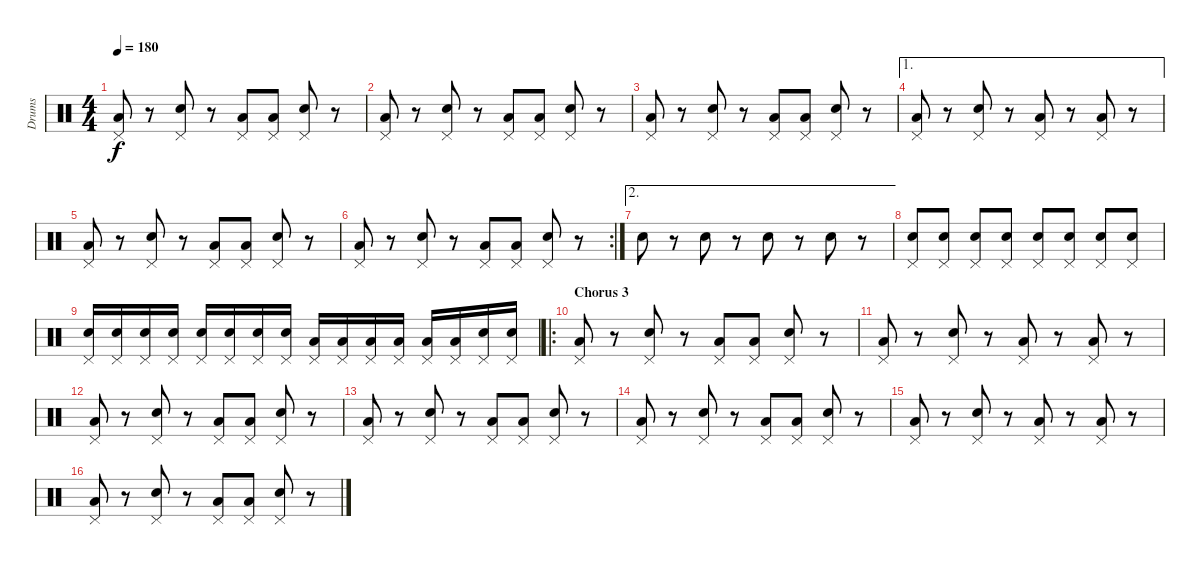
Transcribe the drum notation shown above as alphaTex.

\track ("Drums" "Drums") {instrument percussion}
\staff {score}
\articulation defaults
\ts (4 4)
\tempo 180
\clef neutral
\ks c
("Low Tom (hit)" "Pedal Hi-Hat (hit)").8{dy f} r.8 ("Electric Snare (hit)" "Pedal Hi-Hat (hit)").8 r.8 ("Low Tom (hit)" "Pedal Hi-Hat (hit)").8 ("Low Tom (hit)" "Pedal Hi-Hat (hit)").8 ("Electric Snare (hit)" "Pedal Hi-Hat (hit)").8 r.8 |
("Low Tom (hit)" "Pedal Hi-Hat (hit)").8 r.8 ("Electric Snare (hit)" "Pedal Hi-Hat (hit)").8 r.8 ("Low Tom (hit)" "Pedal Hi-Hat (hit)").8 ("Low Tom (hit)" "Pedal Hi-Hat (hit)").8 ("Electric Snare (hit)" "Pedal Hi-Hat (hit)").8 r.8 |
("Low Tom (hit)" "Pedal Hi-Hat (hit)").8 r.8 ("Electric Snare (hit)" "Pedal Hi-Hat (hit)").8 r.8 ("Low Tom (hit)" "Pedal Hi-Hat (hit)").8 ("Low Tom (hit)" "Pedal Hi-Hat (hit)").8 ("Electric Snare (hit)" "Pedal Hi-Hat (hit)").8 r.8 |
\ae 1
("Low Tom (hit)" "Pedal Hi-Hat (hit)").8 r.8 ("Electric Snare (hit)" "Pedal Hi-Hat (hit)").8 r.8 ("Low Tom (hit)" "Pedal Hi-Hat (hit)").8 r.8 ("Low Tom (hit)" "Pedal Hi-Hat (hit)").8 r.8 |
("Low Tom (hit)" "Pedal Hi-Hat (hit)").8 r.8 ("Electric Snare (hit)" "Pedal Hi-Hat (hit)").8 r.8 ("Low Tom (hit)" "Pedal Hi-Hat (hit)").8 ("Low Tom (hit)" "Pedal Hi-Hat (hit)").8 ("Electric Snare (hit)" "Pedal Hi-Hat (hit)").8 r.8 |
\rc 2
("Low Tom (hit)" "Pedal Hi-Hat (hit)").8 r.8 ("Electric Snare (hit)" "Pedal Hi-Hat (hit)").8 r.8 ("Low Tom (hit)" "Pedal Hi-Hat (hit)").8 ("Low Tom (hit)" "Pedal Hi-Hat (hit)").8 ("Electric Snare (hit)" "Pedal Hi-Hat (hit)").8 r.8 |
\ae 2 "Electric Snare (hit)".8
r.8 "Electric Snare (hit)".8 r.8 "Electric Snare (hit)".8 r.8 "Electric Snare (hit)".8 r.8 |
("Electric Snare (hit)" "Pedal Hi-Hat (hit)").8 ("Electric Snare (hit)" "Pedal Hi-Hat (hit)").8 ("Electric Snare (hit)" "Pedal Hi-Hat (hit)").8 ("Electric Snare (hit)" "Pedal Hi-Hat (hit)").8 ("Electric Snare (hit)" "Pedal Hi-Hat (hit)").8 ("Electric Snare (hit)" "Pedal Hi-Hat (hit)").8 ("Electric Snare (hit)" "Pedal Hi-Hat (hit)").8 ("Electric Snare (hit)" "Pedal Hi-Hat (hit)").8 |
("Electric Snare (hit)" "Pedal Hi-Hat (hit)").16 ("Electric Snare (hit)" "Pedal Hi-Hat (hit)").16 ("Electric Snare (hit)" "Pedal Hi-Hat (hit)").16 ("Electric Snare (hit)" "Pedal Hi-Hat (hit)").16 ("Electric Snare (hit)" "Pedal Hi-Hat (hit)").16 ("Electric Snare (hit)" "Pedal Hi-Hat (hit)").16 ("Electric Snare (hit)" "Pedal Hi-Hat (hit)").16 ("Electric Snare (hit)" "Pedal Hi-Hat (hit)").16 ("Low Tom (hit)" "Pedal Hi-Hat (hit)").16 ("Low Tom (hit)" "Pedal Hi-Hat (hit)").16 ("Low Tom (hit)" "Pedal Hi-Hat (hit)").16 ("Low Tom (hit)" "Pedal Hi-Hat (hit)").16 ("Low Tom (hit)" "Pedal Hi-Hat (hit)").16 ("Low Tom (hit)" "Pedal Hi-Hat (hit)").16 ("Electric Snare (hit)" "Pedal Hi-Hat (hit)").16 ("Electric Snare (hit)" "Pedal Hi-Hat (hit)").16 |
\ro
\section ("" "Chorus 3")
("Low Tom (hit)" "Pedal Hi-Hat (hit)").8 r.8 ("Electric Snare (hit)" "Pedal Hi-Hat (hit)").8 r.8 ("Low Tom (hit)" "Pedal Hi-Hat (hit)").8 ("Low Tom (hit)" "Pedal Hi-Hat (hit)").8 ("Electric Snare (hit)" "Pedal Hi-Hat (hit)").8 r.8 |
("Low Tom (hit)" "Pedal Hi-Hat (hit)").8 r.8 ("Electric Snare (hit)" "Pedal Hi-Hat (hit)").8 r.8 ("Low Tom (hit)" "Pedal Hi-Hat (hit)").8 r.8 ("Low Tom (hit)" "Pedal Hi-Hat (hit)").8 r.8 |
("Low Tom (hit)" "Pedal Hi-Hat (hit)").8 r.8 ("Electric Snare (hit)" "Pedal Hi-Hat (hit)").8 r.8 ("Low Tom (hit)" "Pedal Hi-Hat (hit)").8 ("Low Tom (hit)" "Pedal Hi-Hat (hit)").8 ("Electric Snare (hit)" "Pedal Hi-Hat (hit)").8 r.8 |
("Low Tom (hit)" "Pedal Hi-Hat (hit)").8 r.8 ("Electric Snare (hit)" "Pedal Hi-Hat (hit)").8 r.8 ("Low Tom (hit)" "Pedal Hi-Hat (hit)").8 ("Low Tom (hit)" "Pedal Hi-Hat (hit)").8 ("Electric Snare (hit)" "Pedal Hi-Hat (hit)").8 r.8 |
("Low Tom (hit)" "Pedal Hi-Hat (hit)").8 r.8 ("Electric Snare (hit)" "Pedal Hi-Hat (hit)").8 r.8 ("Low Tom (hit)" "Pedal Hi-Hat (hit)").8 ("Low Tom (hit)" "Pedal Hi-Hat (hit)").8 ("Electric Snare (hit)" "Pedal Hi-Hat (hit)").8 r.8 |
("Low Tom (hit)" "Pedal Hi-Hat (hit)").8 r.8 ("Electric Snare (hit)" "Pedal Hi-Hat (hit)").8 r.8 ("Low Tom (hit)" "Pedal Hi-Hat (hit)").8 r.8 ("Low Tom (hit)" "Pedal Hi-Hat (hit)").8 r.8 |
("Low Tom (hit)" "Pedal Hi-Hat (hit)").8 r.8 ("Electric Snare (hit)" "Pedal Hi-Hat (hit)").8 r.8 ("Low Tom (hit)" "Pedal Hi-Hat (hit)").8 ("Low Tom (hit)" "Pedal Hi-Hat (hit)").8 ("Electric Snare (hit)" "Pedal Hi-Hat (hit)").8 r.8
